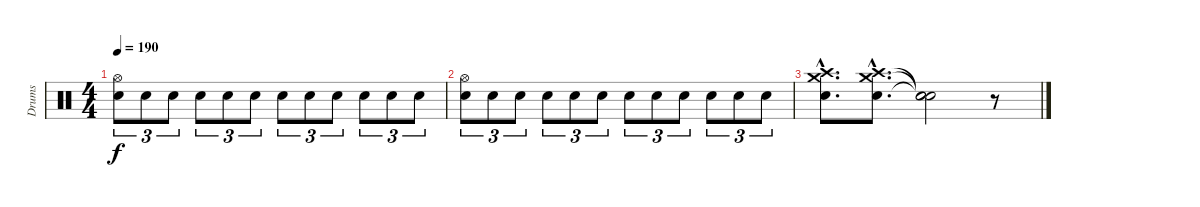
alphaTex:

\track ("Drums" "Drums") {instrument percussion}
\staff {score}
\articulation defaults
\ts (4 4)
\tempo 190
\clef neutral
\ks c
("Electric Snare (hit)" "Hi-Hat (open)").8{tu (3 2) dy f} "Electric Snare (hit)".8{tu (3 2)} "Electric Snare (hit)".8{tu (3 2)} "Electric Snare (hit)".8{tu (3 2)} "Electric Snare (hit)".8{tu (3 2)} "Electric Snare (hit)".8{tu (3 2)} "Electric Snare (hit)".8{tu (3 2)} "Electric Snare (hit)".8{tu (3 2)} "Electric Snare (hit)".8{tu (3 2)} "Electric Snare (hit)".8{tu (3 2)} "Electric Snare (hit)".8{tu (3 2)} "Electric Snare (hit)".8{tu (3 2)} |
("Electric Snare (hit)" "Hi-Hat (open)").8{tu (3 2)} "Electric Snare (hit)".8{tu (3 2)} "Electric Snare (hit)".8{tu (3 2)} "Electric Snare (hit)".8{tu (3 2)} "Electric Snare (hit)".8{tu (3 2)} "Electric Snare (hit)".8{tu (3 2)} "Electric Snare (hit)".8{tu (3 2)} "Electric Snare (hit)".8{tu (3 2)} "Electric Snare (hit)".8{tu (3 2)} "Electric Snare (hit)".8{tu (3 2)} "Electric Snare (hit)".8{tu (3 2)} "Electric Snare (hit)".8{tu (3 2)} |
("Electric Snare (hit)"{hac} "Crash medium (hit)"{hac} "Crash high (hit)"{hac}).8{d} ("Electric Snare (hit)"{hac} "Crash medium (hit)"{hac} "Crash high (hit)"{hac}).8{d} ("Snare (hit)"{t} "Snare (hit)"{t} "Snare (hit)"{t}).2 r.8
